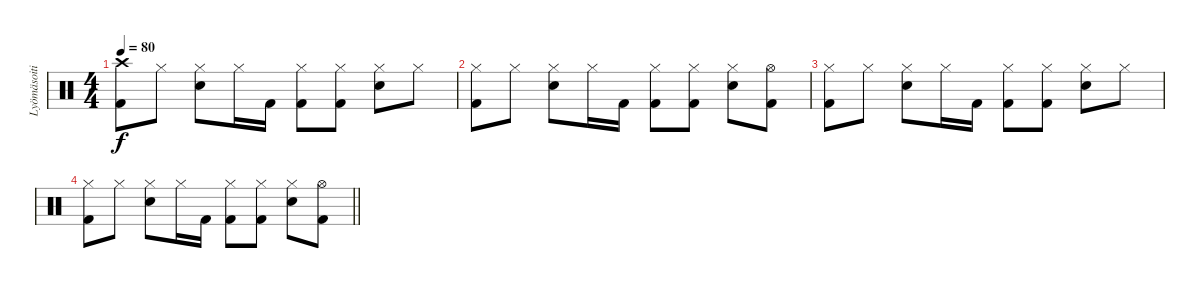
\track ("Lyömäsoitin" "Lyömäsoiti") {instrument percussion}
\staff {score}
\articulation defaults
\ts (4 4)
\tempo 80
\clef neutral
\ks c
("Crash high (hit)" "Kick (hit) 2").8{dy f} "Hi-Hat (closed)".8 ("Hi-Hat (closed)" "Snare (hit) 2").8 "Hi-Hat (closed)".16 "Kick (hit) 2".16 ("Hi-Hat (closed)" "Kick (hit) 2").8 ("Hi-Hat (closed)" "Kick (hit) 2").8 ("Hi-Hat (closed)" "Snare (hit) 2").8 "Hi-Hat (closed)".8 |
("Hi-Hat (closed)" "Kick (hit) 2").8 "Hi-Hat (closed)".8 ("Hi-Hat (closed)" "Snare (hit) 2").8 "Hi-Hat (closed)".16 "Kick (hit) 2".16 ("Hi-Hat (closed)" "Kick (hit) 2").8 ("Hi-Hat (closed)" "Kick (hit) 2").8 ("Hi-Hat (closed)" "Snare (hit) 2").8 ("Hi-Hat (open)" "Kick (hit) 2").8 |
("Hi-Hat (closed)" "Kick (hit) 2").8 "Hi-Hat (closed)".8 ("Hi-Hat (closed)" "Snare (hit) 2").8 "Hi-Hat (closed)".16 "Kick (hit) 2".16 ("Hi-Hat (closed)" "Kick (hit) 2").8 ("Hi-Hat (closed)" "Kick (hit) 2").8 ("Hi-Hat (closed)" "Snare (hit) 2").8 "Hi-Hat (closed)".8 |
\barLineRight lightlight
("Hi-Hat (closed)" "Kick (hit) 2").8 "Hi-Hat (closed)".8 ("Hi-Hat (closed)" "Snare (hit) 2").8 "Hi-Hat (closed)".16 "Kick (hit) 2".16 ("Hi-Hat (closed)" "Kick (hit) 2").8 ("Hi-Hat (closed)" "Kick (hit) 2").8 ("Hi-Hat (closed)" "Snare (hit) 2").8 ("Hi-Hat (open)" "Kick (hit) 2").8
